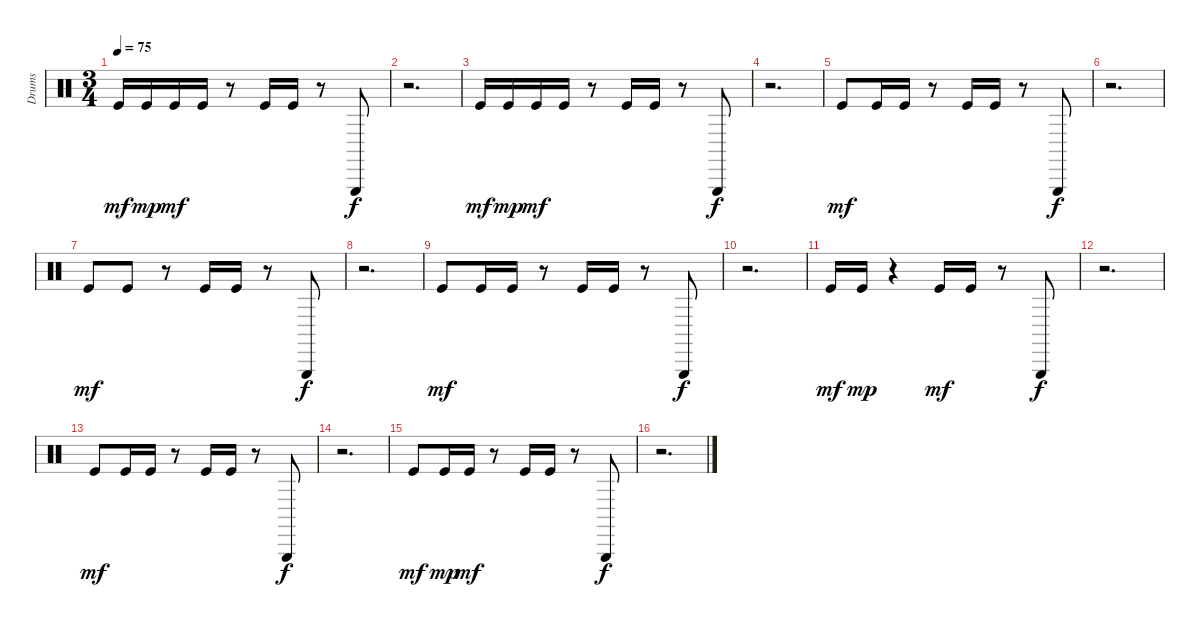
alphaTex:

\track ("Drums" "Drums") {instrument percussion}
\staff {score}
\articulation defaults
\ts (3 4)
\tempo 75
\clef neutral
\ks c "Kick (hit)".16{dy mf} "Kick (hit)".16{dy mp} "Kick (hit)".16{dy mf} "Kick (hit)".16
r.8 "Kick (hit)".16 "Kick (hit)".16 r.8 "Triangle (hit)".8{dy f} |
r.2{d} |
"Kick (hit)".16{dy mf} "Kick (hit)".16{dy mp} "Kick (hit)".16{dy mf} "Kick (hit)".16 r.8 "Kick (hit)".16 "Kick (hit)".16 r.8 "Triangle (hit)".8{dy f} |
r.2{d} |
"Kick (hit)".8{dy mf} "Kick (hit)".16 "Kick (hit)".16 r.8 "Kick (hit)".16 "Kick (hit)".16 r.8 "Triangle (hit)".8{dy f} |
r.2{d} |
"Kick (hit)".8{dy mf} "Kick (hit)".8 r.8 "Kick (hit)".16 "Kick (hit)".16 r.8 "Triangle (hit)".8{dy f} |
r.2{d} |
"Kick (hit)".8{dy mf} "Kick (hit)".16 "Kick (hit)".16 r.8 "Kick (hit)".16 "Kick (hit)".16 r.8 "Triangle (hit)".8{dy f} |
r.2{d} |
"Kick (hit)".16{dy mf} "Kick (hit)".16{dy mp} r.4 "Kick (hit)".16{dy mf} "Kick (hit)".16 r.8 "Triangle (hit)".8{dy f} |
r.2{d} |
"Kick (hit)".8{dy mf} "Kick (hit)".16 "Kick (hit)".16 r.8 "Kick (hit)".16 "Kick (hit)".16 r.8 "Triangle (hit)".8{dy f} |
r.2{d} |
"Kick (hit)".8{dy mf} "Kick (hit)".16{dy mp} "Kick (hit)".16{dy mf} r.8 "Kick (hit)".16 "Kick (hit)".16 r.8 "Triangle (hit)".8{dy f} |
r.2{d}
